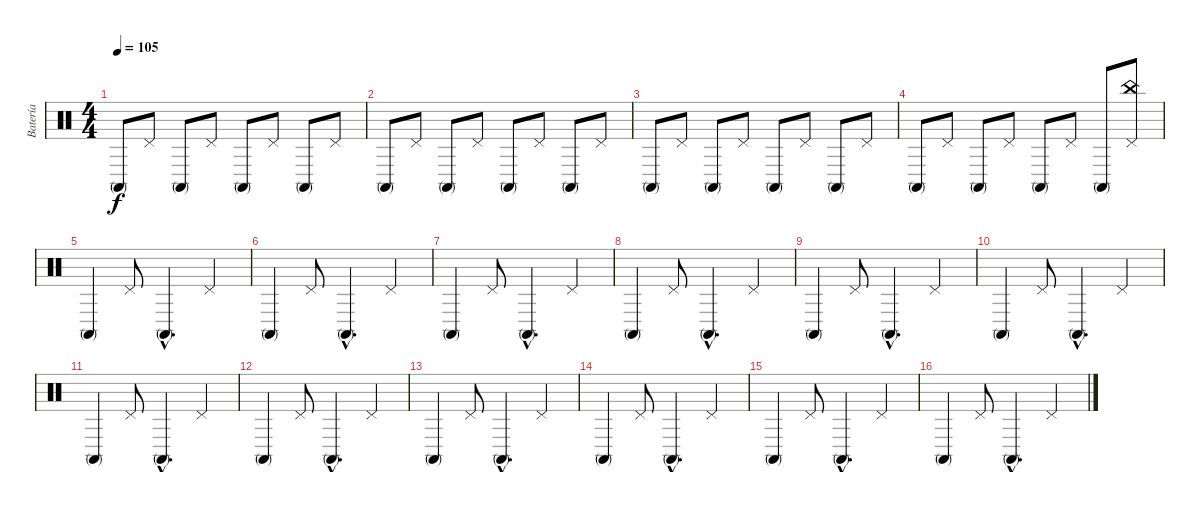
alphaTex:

\track ("Batería" "Batería") {instrument percussion}
\staff {score}
\articulation defaults
\ts (4 4)
\tempo 105
\clef neutral
\ks c "Conga high (mute)".8{dy f} "Pedal Hi-Hat (hit)".8 "Conga high (mute)".8 "Pedal Hi-Hat (hit)".8 "Conga high (mute)".8 "Pedal Hi-Hat (hit)".8 "Conga high (mute)".8 "Pedal Hi-Hat (hit)".8
|
"Conga high (mute)".8 "Pedal Hi-Hat (hit)".8 "Conga high (mute)".8 "Pedal Hi-Hat (hit)".8 "Conga high (mute)".8 "Pedal Hi-Hat (hit)".8 "Conga high (mute)".8 "Pedal Hi-Hat (hit)".8 |
"Conga high (mute)".8 "Pedal Hi-Hat (hit)".8 "Conga high (mute)".8 "Pedal Hi-Hat (hit)".8 "Conga high (mute)".8 "Pedal Hi-Hat (hit)".8 "Conga high (mute)".8 "Pedal Hi-Hat (hit)".8 |
"Conga high (mute)".8 "Pedal Hi-Hat (hit)".8 "Conga high (mute)".8 "Pedal Hi-Hat (hit)".8 "Conga high (mute)".8 "Pedal Hi-Hat (hit)".8 "Conga high (mute)".8 ("China (hit)" "Pedal Hi-Hat (hit)").8 |
"Conga high (mute)".4 "Pedal Hi-Hat (hit)".8 "Conga high (mute)"{hac}.4{d} "Pedal Hi-Hat (hit)".4 |
"Conga high (mute)".4 "Pedal Hi-Hat (hit)".8 "Conga high (mute)"{hac}.4{d} "Pedal Hi-Hat (hit)".4 |
"Conga high (mute)".4 "Pedal Hi-Hat (hit)".8 "Conga high (mute)"{hac}.4{d} "Pedal Hi-Hat (hit)".4 |
"Conga high (mute)".4 "Pedal Hi-Hat (hit)".8 "Conga high (mute)"{hac}.4{d} "Pedal Hi-Hat (hit)".4 |
"Conga high (mute)".4 "Pedal Hi-Hat (hit)".8 "Conga high (mute)"{hac}.4{d} "Pedal Hi-Hat (hit)".4 |
"Conga high (mute)".4 "Pedal Hi-Hat (hit)".8 "Conga high (mute)"{hac}.4{d} "Pedal Hi-Hat (hit)".4 |
"Conga high (mute)".4 "Pedal Hi-Hat (hit)".8 "Conga high (mute)"{hac}.4{d} "Pedal Hi-Hat (hit)".4 |
"Conga high (mute)".4 "Pedal Hi-Hat (hit)".8 "Conga high (mute)"{hac}.4{d} "Pedal Hi-Hat (hit)".4 |
"Conga high (mute)".4 "Pedal Hi-Hat (hit)".8 "Conga high (mute)"{hac}.4{d} "Pedal Hi-Hat (hit)".4 |
"Conga high (mute)".4 "Pedal Hi-Hat (hit)".8 "Conga high (mute)"{hac}.4{d} "Pedal Hi-Hat (hit)".4 |
"Conga high (mute)".4 "Pedal Hi-Hat (hit)".8 "Conga high (mute)"{hac}.4{d} "Pedal Hi-Hat (hit)".4 |
"Conga high (mute)".4 "Pedal Hi-Hat (hit)".8 "Conga high (mute)"{hac}.4{d} "Pedal Hi-Hat (hit)".4
